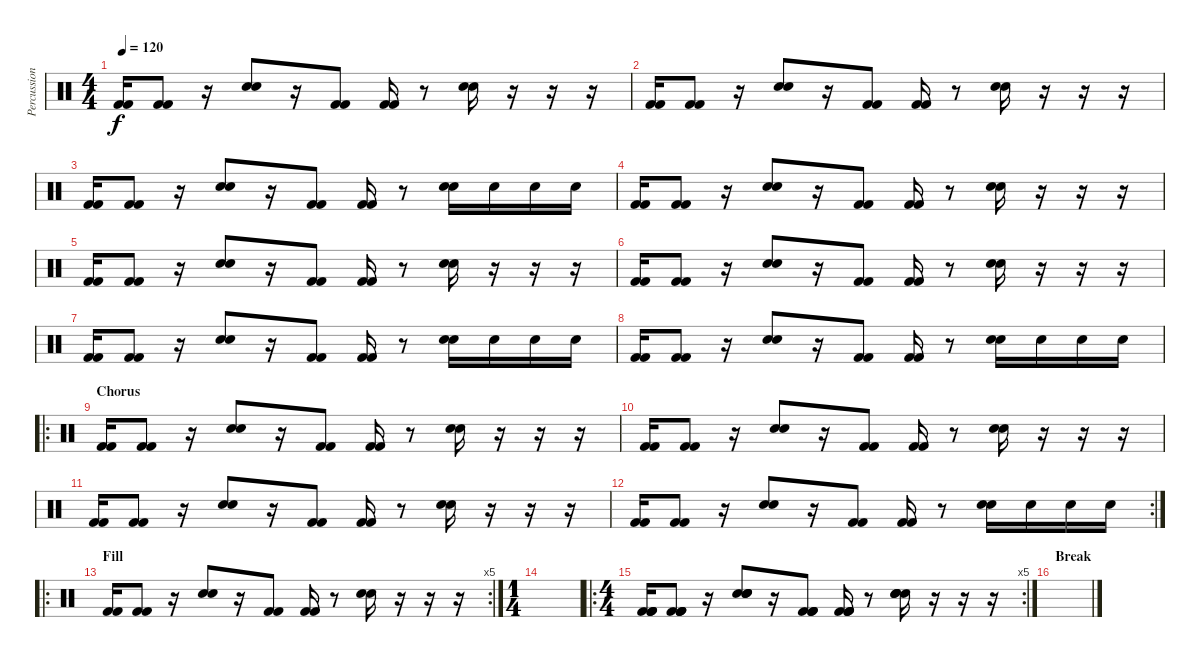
\track ("Percussion" "Percussion") {instrument percussion}
\staff {score}
\articulation defaults
\ts (4 4)
\tempo 120
\clef neutral
\ks c
("Kick (hit) 2" "Kick (hit) 2").16{dy f} ("Kick (hit) 2" "Kick (hit) 2").8 r.16 ("Electric Snare (hit)" "Electric Snare (hit)").8 r.16 ("Kick (hit) 2" "Kick (hit) 2").8 ("Kick (hit) 2" "Kick (hit) 2").16 r.8 ("Electric Snare (hit)" "Electric Snare (hit)").16 r.16 r.16 r.16 |
("Kick (hit) 2" "Kick (hit) 2").16 ("Kick (hit) 2" "Kick (hit) 2").8 r.16 ("Electric Snare (hit)" "Electric Snare (hit)").8 r.16 ("Kick (hit) 2" "Kick (hit) 2").8 ("Kick (hit) 2" "Kick (hit) 2").16 r.8 ("Electric Snare (hit)" "Electric Snare (hit)").16 r.16 r.16 r.16 |
("Kick (hit) 2" "Kick (hit) 2").16 ("Kick (hit) 2" "Kick (hit) 2").8 r.16 ("Electric Snare (hit)" "Electric Snare (hit)").8 r.16 ("Kick (hit) 2" "Kick (hit) 2").8 ("Kick (hit) 2" "Kick (hit) 2").16 r.8 ("Electric Snare (hit)" "Electric Snare (hit)").16 "Electric Snare (hit)".16 "Electric Snare (hit)".16 "Electric Snare (hit)".16 |
("Kick (hit) 2" "Kick (hit) 2").16 ("Kick (hit) 2" "Kick (hit) 2").8 r.16 ("Electric Snare (hit)" "Electric Snare (hit)").8 r.16 ("Kick (hit) 2" "Kick (hit) 2").8 ("Kick (hit) 2" "Kick (hit) 2").16 r.8 ("Electric Snare (hit)" "Electric Snare (hit)").16 r.16 r.16 r.16 |
("Kick (hit) 2" "Kick (hit) 2").16 ("Kick (hit) 2" "Kick (hit) 2").8 r.16 ("Electric Snare (hit)" "Electric Snare (hit)").8 r.16 ("Kick (hit) 2" "Kick (hit) 2").8 ("Kick (hit) 2" "Kick (hit) 2").16 r.8 ("Electric Snare (hit)" "Electric Snare (hit)").16 r.16 r.16 r.16 |
("Kick (hit) 2" "Kick (hit) 2").16 ("Kick (hit) 2" "Kick (hit) 2").8 r.16 ("Electric Snare (hit)" "Electric Snare (hit)").8 r.16 ("Kick (hit) 2" "Kick (hit) 2").8 ("Kick (hit) 2" "Kick (hit) 2").16 r.8 ("Electric Snare (hit)" "Electric Snare (hit)").16 r.16 r.16 r.16 |
("Kick (hit) 2" "Kick (hit) 2").16 ("Kick (hit) 2" "Kick (hit) 2").8 r.16 ("Electric Snare (hit)" "Electric Snare (hit)").8 r.16 ("Kick (hit) 2" "Kick (hit) 2").8 ("Kick (hit) 2" "Kick (hit) 2").16 r.8 ("Electric Snare (hit)" "Electric Snare (hit)").16 "Electric Snare (hit)".16 "Electric Snare (hit)".16 "Electric Snare (hit)".16 |
("Kick (hit) 2" "Kick (hit) 2").16 ("Kick (hit) 2" "Kick (hit) 2").8 r.16 ("Electric Snare (hit)" "Electric Snare (hit)").8 r.16 ("Kick (hit) 2" "Kick (hit) 2").8 ("Kick (hit) 2" "Kick (hit) 2").16 r.8 ("Electric Snare (hit)" "Electric Snare (hit)").16 "Electric Snare (hit)".16 "Electric Snare (hit)".16 "Electric Snare (hit)".16 |
\ro
\section ("" "Chorus")
("Kick (hit) 2" "Kick (hit) 2").16 ("Kick (hit) 2" "Kick (hit) 2").8 r.16 ("Electric Snare (hit)" "Electric Snare (hit)").8 r.16 ("Kick (hit) 2" "Kick (hit) 2").8 ("Kick (hit) 2" "Kick (hit) 2").16 r.8 ("Electric Snare (hit)" "Electric Snare (hit)").16 r.16 r.16 r.16 |
("Kick (hit) 2" "Kick (hit) 2").16 ("Kick (hit) 2" "Kick (hit) 2").8 r.16 ("Electric Snare (hit)" "Electric Snare (hit)").8 r.16 ("Kick (hit) 2" "Kick (hit) 2").8 ("Kick (hit) 2" "Kick (hit) 2").16 r.8 ("Electric Snare (hit)" "Electric Snare (hit)").16 r.16 r.16 r.16 |
("Kick (hit) 2" "Kick (hit) 2").16 ("Kick (hit) 2" "Kick (hit) 2").8 r.16 ("Electric Snare (hit)" "Electric Snare (hit)").8 r.16 ("Kick (hit) 2" "Kick (hit) 2").8 ("Kick (hit) 2" "Kick (hit) 2").16 r.8 ("Electric Snare (hit)" "Electric Snare (hit)").16 r.16 r.16 r.16 |
\rc 2
("Kick (hit) 2" "Kick (hit) 2").16 ("Kick (hit) 2" "Kick (hit) 2").8 r.16 ("Electric Snare (hit)" "Electric Snare (hit)").8 r.16 ("Kick (hit) 2" "Kick (hit) 2").8 ("Kick (hit) 2" "Kick (hit) 2").16 r.8 ("Electric Snare (hit)" "Electric Snare (hit)").16 "Electric Snare (hit)".16 "Electric Snare (hit)".16 "Electric Snare (hit)".16 |
\ro
\rc 5
\section ("" "Fill")
("Kick (hit) 2" "Kick (hit) 2").16 ("Kick (hit) 2" "Kick (hit) 2").8 r.16 ("Electric Snare (hit)" "Electric Snare (hit)").8 r.16 ("Kick (hit) 2" "Kick (hit) 2").8 ("Kick (hit) 2" "Kick (hit) 2").16 r.8 ("Electric Snare (hit)" "Electric Snare (hit)").16 r.16 r.16 r.16 |
\ts (1 4)
|
\ro
\rc 5
\ts (4 4)
("Kick (hit) 2" "Kick (hit) 2" "Kick (hit) 2" "Kick (hit) 2").16 ("Kick (hit) 2" "Kick (hit) 2" "Kick (hit) 2" "Kick (hit) 2").8 r.16 ("Electric Snare (hit)" "Electric Snare (hit)" "Electric Snare (hit)" "Electric Snare (hit)").8 r.16 ("Kick (hit) 2" "Kick (hit) 2" "Kick (hit) 2" "Kick (hit) 2").8 ("Kick (hit) 2" "Kick (hit) 2" "Kick (hit) 2" "Kick (hit) 2").16 r.8 ("Electric Snare (hit)" "Electric Snare (hit)" "Electric Snare (hit)" "Electric Snare (hit)").16 r.16 r.16 r.16 |
\section ("" "Break")
